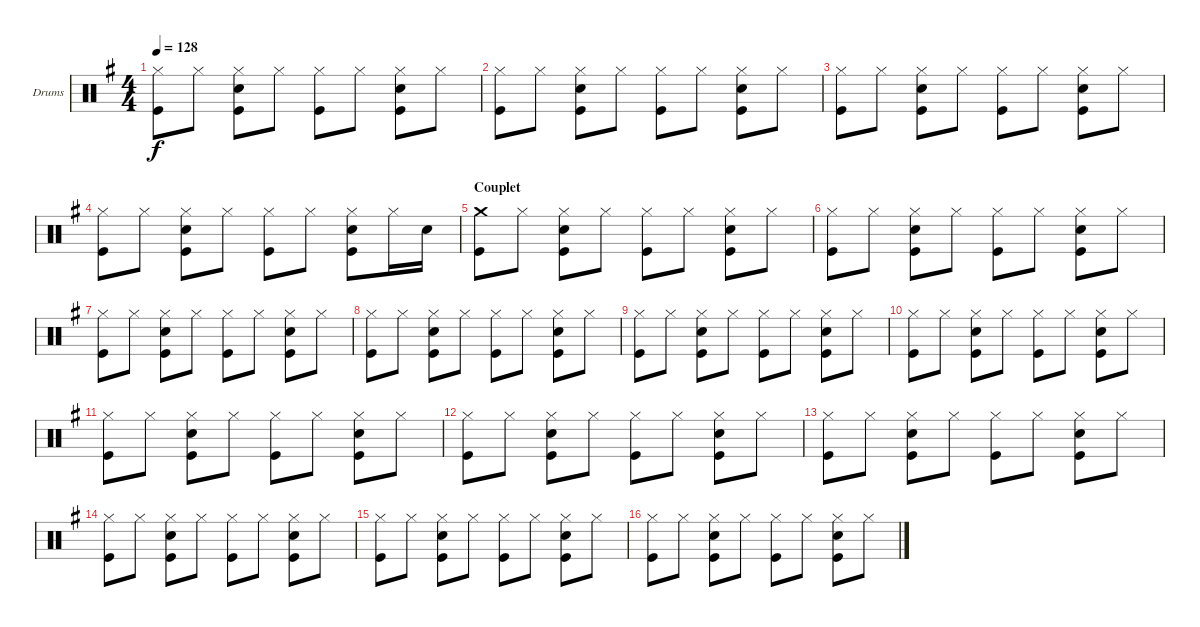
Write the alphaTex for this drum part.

\bracketExtendMode groupsimilarinstruments
\firstSystemTrackNameOrientation horizontal
\otherSystemsTrackNameOrientation horizontal
\track ("Drumkit" "Drums") {multiBarRest instrument percussion}
\staff {score}
\articulation defaults
\ts (4 4)
\tempo 128
\clef neutral
\ks eminor
("Hi-Hat (closed)" "Kick (hit)").8{dy f} "Hi-Hat (closed)".8 ("Hi-Hat (closed)" "Snare (hit) 2" "Kick (hit)").8 "Hi-Hat (closed)".8 ("Hi-Hat (closed)" "Kick (hit)").8 "Hi-Hat (closed)".8 ("Hi-Hat (closed)" "Snare (hit) 2" "Kick (hit)").8 "Hi-Hat (closed)".8 |
("Hi-Hat (closed)" "Kick (hit)").8 "Hi-Hat (closed)".8 ("Hi-Hat (closed)" "Snare (hit) 2" "Kick (hit)").8 "Hi-Hat (closed)".8 ("Hi-Hat (closed)" "Kick (hit)").8 "Hi-Hat (closed)".8 ("Hi-Hat (closed)" "Snare (hit) 2" "Kick (hit)").8 "Hi-Hat (closed)".8 |
("Hi-Hat (closed)" "Kick (hit)").8 "Hi-Hat (closed)".8 ("Hi-Hat (closed)" "Snare (hit) 2" "Kick (hit)").8 "Hi-Hat (closed)".8 ("Hi-Hat (closed)" "Kick (hit)").8 "Hi-Hat (closed)".8 ("Hi-Hat (closed)" "Snare (hit) 2" "Kick (hit)").8 "Hi-Hat (closed)".8 |
("Hi-Hat (closed)" "Kick (hit)").8 "Hi-Hat (closed)".8 ("Hi-Hat (closed)" "Snare (hit) 2" "Kick (hit)").8 "Hi-Hat (closed)".8 ("Hi-Hat (closed)" "Kick (hit)").8 "Hi-Hat (closed)".8 ("Hi-Hat (closed)" "Snare (hit) 2" "Kick (hit)").8 "Hi-Hat (closed)".16 "Snare (hit) 2".16 |
\section ("" "Couplet")
("Crash medium (hit)" "Kick (hit)").8 "Hi-Hat (closed)".8 ("Hi-Hat (closed)" "Snare (hit) 2" "Kick (hit)").8 "Hi-Hat (closed)".8 ("Hi-Hat (closed)" "Kick (hit)").8 "Hi-Hat (closed)".8 ("Hi-Hat (closed)" "Snare (hit) 2" "Kick (hit)").8 "Hi-Hat (closed)".8 |
("Hi-Hat (closed)" "Kick (hit)").8 "Hi-Hat (closed)".8 ("Hi-Hat (closed)" "Snare (hit) 2" "Kick (hit)").8 "Hi-Hat (closed)".8 ("Hi-Hat (closed)" "Kick (hit)").8 "Hi-Hat (closed)".8 ("Hi-Hat (closed)" "Snare (hit) 2" "Kick (hit)").8 "Hi-Hat (closed)".8 |
("Hi-Hat (closed)" "Kick (hit)").8 "Hi-Hat (closed)".8 ("Hi-Hat (closed)" "Snare (hit) 2" "Kick (hit)").8 "Hi-Hat (closed)".8 ("Hi-Hat (closed)" "Kick (hit)").8 "Hi-Hat (closed)".8 ("Hi-Hat (closed)" "Snare (hit) 2" "Kick (hit)").8 "Hi-Hat (closed)".8 |
("Hi-Hat (closed)" "Kick (hit)").8 "Hi-Hat (closed)".8 ("Hi-Hat (closed)" "Snare (hit) 2" "Kick (hit)").8 "Hi-Hat (closed)".8 ("Hi-Hat (closed)" "Kick (hit)").8 "Hi-Hat (closed)".8 ("Hi-Hat (closed)" "Snare (hit) 2" "Kick (hit)").8 "Hi-Hat (closed)".8 |
("Hi-Hat (closed)" "Kick (hit)").8 "Hi-Hat (closed)".8 ("Hi-Hat (closed)" "Snare (hit) 2" "Kick (hit)").8 "Hi-Hat (closed)".8 ("Hi-Hat (closed)" "Kick (hit)").8 "Hi-Hat (closed)".8 ("Hi-Hat (closed)" "Snare (hit) 2" "Kick (hit)").8 "Hi-Hat (closed)".8 |
("Hi-Hat (closed)" "Kick (hit)").8 "Hi-Hat (closed)".8 ("Hi-Hat (closed)" "Snare (hit) 2" "Kick (hit)").8 "Hi-Hat (closed)".8 ("Hi-Hat (closed)" "Kick (hit)").8 "Hi-Hat (closed)".8 ("Hi-Hat (closed)" "Snare (hit) 2" "Kick (hit)").8 "Hi-Hat (closed)".8 |
("Hi-Hat (closed)" "Kick (hit)").8 "Hi-Hat (closed)".8 ("Hi-Hat (closed)" "Snare (hit) 2" "Kick (hit)").8 "Hi-Hat (closed)".8 ("Hi-Hat (closed)" "Kick (hit)").8 "Hi-Hat (closed)".8 ("Hi-Hat (closed)" "Snare (hit) 2" "Kick (hit)").8 "Hi-Hat (closed)".8 |
("Hi-Hat (closed)" "Kick (hit)").8 "Hi-Hat (closed)".8 ("Hi-Hat (closed)" "Snare (hit) 2" "Kick (hit)").8 "Hi-Hat (closed)".8 ("Hi-Hat (closed)" "Kick (hit)").8 "Hi-Hat (closed)".8 ("Hi-Hat (closed)" "Snare (hit) 2" "Kick (hit)").8 "Hi-Hat (closed)".8 |
("Hi-Hat (closed)" "Kick (hit)").8 "Hi-Hat (closed)".8 ("Hi-Hat (closed)" "Snare (hit) 2" "Kick (hit)").8 "Hi-Hat (closed)".8 ("Hi-Hat (closed)" "Kick (hit)").8 "Hi-Hat (closed)".8 ("Hi-Hat (closed)" "Snare (hit) 2" "Kick (hit)").8 "Hi-Hat (closed)".8 |
("Hi-Hat (closed)" "Kick (hit)").8 "Hi-Hat (closed)".8 ("Hi-Hat (closed)" "Snare (hit) 2" "Kick (hit)").8 "Hi-Hat (closed)".8 ("Hi-Hat (closed)" "Kick (hit)").8 "Hi-Hat (closed)".8 ("Hi-Hat (closed)" "Snare (hit) 2" "Kick (hit)").8 "Hi-Hat (closed)".8 |
("Hi-Hat (closed)" "Kick (hit)").8 "Hi-Hat (closed)".8 ("Hi-Hat (closed)" "Snare (hit) 2" "Kick (hit)").8 "Hi-Hat (closed)".8 ("Hi-Hat (closed)" "Kick (hit)").8 "Hi-Hat (closed)".8 ("Hi-Hat (closed)" "Snare (hit) 2" "Kick (hit)").8 "Hi-Hat (closed)".8 |
("Hi-Hat (closed)" "Kick (hit)").8 "Hi-Hat (closed)".8 ("Hi-Hat (closed)" "Snare (hit) 2" "Kick (hit)").8 "Hi-Hat (closed)".8 ("Hi-Hat (closed)" "Kick (hit)").8 "Hi-Hat (closed)".8 ("Hi-Hat (closed)" "Snare (hit) 2" "Kick (hit)").8 "Hi-Hat (closed)".8
